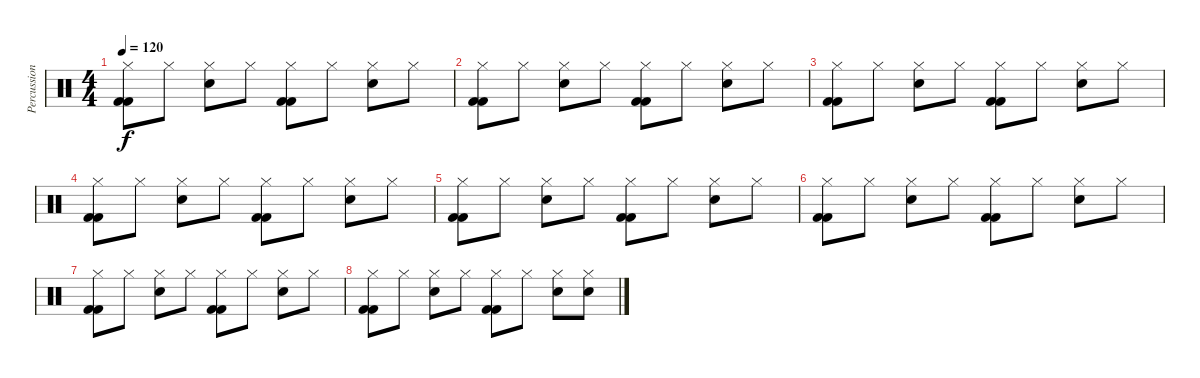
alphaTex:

\track ("Percussion" "Percussion") {instrument percussion}
\staff {score}
\articulation defaults
\ts (4 4)
\tempo 120
\clef neutral
\ks c
("Hi-Hat (closed)" "Kick (hit) 2" "Kick (hit) 2").8{dy f} "Hi-Hat (closed)".8 ("Hi-Hat (closed)" "Electric Snare (hit)").8 "Hi-Hat (closed)".8 ("Hi-Hat (closed)" "Kick (hit) 2" "Kick (hit) 2").8 "Hi-Hat (closed)".8 ("Hi-Hat (closed)" "Electric Snare (hit)").8 "Hi-Hat (closed)".8 |
("Hi-Hat (closed)" "Kick (hit) 2" "Kick (hit) 2").8 "Hi-Hat (closed)".8 ("Hi-Hat (closed)" "Electric Snare (hit)").8 "Hi-Hat (closed)".8 ("Hi-Hat (closed)" "Kick (hit) 2" "Kick (hit) 2").8 "Hi-Hat (closed)".8 ("Hi-Hat (closed)" "Electric Snare (hit)").8 "Hi-Hat (closed)".8 |
("Hi-Hat (closed)" "Kick (hit) 2" "Kick (hit) 2").8 "Hi-Hat (closed)".8 ("Hi-Hat (closed)" "Electric Snare (hit)").8 "Hi-Hat (closed)".8 ("Hi-Hat (closed)" "Kick (hit) 2" "Kick (hit) 2").8 "Hi-Hat (closed)".8 ("Hi-Hat (closed)" "Electric Snare (hit)").8 "Hi-Hat (closed)".8 |
("Hi-Hat (closed)" "Kick (hit) 2" "Kick (hit) 2").8 "Hi-Hat (closed)".8 ("Hi-Hat (closed)" "Electric Snare (hit)").8 "Hi-Hat (closed)".8 ("Hi-Hat (closed)" "Kick (hit) 2" "Kick (hit) 2").8 "Hi-Hat (closed)".8 ("Hi-Hat (closed)" "Electric Snare (hit)").8 "Hi-Hat (closed)".8 |
("Hi-Hat (closed)" "Kick (hit) 2" "Kick (hit) 2").8 "Hi-Hat (closed)".8 ("Hi-Hat (closed)" "Electric Snare (hit)").8 "Hi-Hat (closed)".8 ("Hi-Hat (closed)" "Kick (hit) 2" "Kick (hit) 2").8 "Hi-Hat (closed)".8 ("Hi-Hat (closed)" "Electric Snare (hit)").8 "Hi-Hat (closed)".8 |
("Hi-Hat (closed)" "Kick (hit) 2" "Kick (hit) 2").8 "Hi-Hat (closed)".8 ("Hi-Hat (closed)" "Electric Snare (hit)").8 "Hi-Hat (closed)".8 ("Hi-Hat (closed)" "Kick (hit) 2" "Kick (hit) 2").8 "Hi-Hat (closed)".8 ("Hi-Hat (closed)" "Electric Snare (hit)").8 "Hi-Hat (closed)".8 |
("Hi-Hat (closed)" "Kick (hit) 2" "Kick (hit) 2").8 "Hi-Hat (closed)".8 ("Hi-Hat (closed)" "Electric Snare (hit)").8 "Hi-Hat (closed)".8 ("Hi-Hat (closed)" "Kick (hit) 2" "Kick (hit) 2").8 "Hi-Hat (closed)".8 ("Hi-Hat (closed)" "Electric Snare (hit)").8 "Hi-Hat (closed)".8 |
("Hi-Hat (closed)" "Kick (hit) 2" "Kick (hit) 2").8 "Hi-Hat (closed)".8 ("Hi-Hat (closed)" "Electric Snare (hit)").8 "Hi-Hat (closed)".8 ("Hi-Hat (closed)" "Kick (hit) 2" "Kick (hit) 2").8 "Hi-Hat (closed)".8 ("Hi-Hat (closed)" "Electric Snare (hit)").8 ("Hi-Hat (closed)" "Electric Snare (hit)").8
